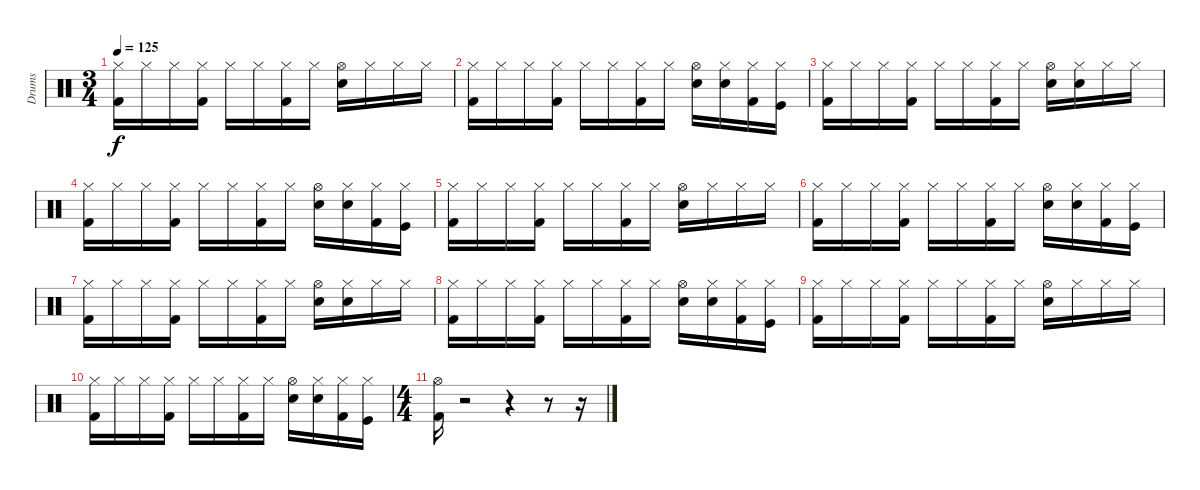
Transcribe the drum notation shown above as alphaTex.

\track ("Drums" "Drums") {instrument percussion}
\staff {score}
\articulation defaults
\ts (3 4)
\tempo 125
\clef neutral
\ks c
("Hi-Hat (closed)" "Kick (hit) 2").16{dy f} "Hi-Hat (closed)".16 "Hi-Hat (closed)".16 ("Hi-Hat (closed)" "Kick (hit) 2").16 "Hi-Hat (closed)".16 "Hi-Hat (closed)".16 ("Hi-Hat (closed)" "Kick (hit) 2").16 "Hi-Hat (closed)".16 ("Hi-Hat (open)" "Electric Snare (hit)").16 "Hi-Hat (closed)".16 "Hi-Hat (closed)".16 "Hi-Hat (closed)".16 |
("Hi-Hat (closed)" "Kick (hit) 2").16 "Hi-Hat (closed)".16 "Hi-Hat (closed)".16 ("Hi-Hat (closed)" "Kick (hit) 2").16 "Hi-Hat (closed)".16 "Hi-Hat (closed)".16 ("Hi-Hat (closed)" "Kick (hit) 2").16 "Hi-Hat (closed)".16 ("Hi-Hat (open)" "Electric Snare (hit)").16 ("Hi-Hat (closed)" "Electric Snare (hit)").16 ("Hi-Hat (closed)" "Kick (hit) 2").16 ("Hi-Hat (closed)" "Kick (hit)").16 |
("Hi-Hat (closed)" "Kick (hit) 2").16 "Hi-Hat (closed)".16 "Hi-Hat (closed)".16 ("Hi-Hat (closed)" "Kick (hit) 2").16 "Hi-Hat (closed)".16 "Hi-Hat (closed)".16 ("Hi-Hat (closed)" "Kick (hit) 2").16 "Hi-Hat (closed)".16 ("Hi-Hat (open)" "Electric Snare (hit)").16 ("Hi-Hat (closed)" "Electric Snare (hit)").16 "Hi-Hat (closed)".16 "Hi-Hat (closed)".16 |
("Hi-Hat (closed)" "Kick (hit) 2").16 "Hi-Hat (closed)".16 "Hi-Hat (closed)".16 ("Hi-Hat (closed)" "Kick (hit) 2").16 "Hi-Hat (closed)".16 "Hi-Hat (closed)".16 ("Hi-Hat (closed)" "Kick (hit) 2").16 "Hi-Hat (closed)".16 ("Hi-Hat (open)" "Electric Snare (hit)").16 ("Hi-Hat (closed)" "Electric Snare (hit)").16 ("Hi-Hat (closed)" "Kick (hit) 2").16 ("Hi-Hat (closed)" "Kick (hit)").16 |
("Hi-Hat (closed)" "Kick (hit) 2").16 "Hi-Hat (closed)".16 "Hi-Hat (closed)".16 ("Hi-Hat (closed)" "Kick (hit) 2").16 "Hi-Hat (closed)".16 "Hi-Hat (closed)".16 ("Hi-Hat (closed)" "Kick (hit) 2").16 "Hi-Hat (closed)".16 ("Hi-Hat (open)" "Electric Snare (hit)").16 "Hi-Hat (closed)".16 "Hi-Hat (closed)".16 "Hi-Hat (closed)".16 |
("Hi-Hat (closed)" "Kick (hit) 2").16 "Hi-Hat (closed)".16 "Hi-Hat (closed)".16 ("Hi-Hat (closed)" "Kick (hit) 2").16 "Hi-Hat (closed)".16 "Hi-Hat (closed)".16 ("Hi-Hat (closed)" "Kick (hit) 2").16 "Hi-Hat (closed)".16 ("Hi-Hat (open)" "Electric Snare (hit)").16 ("Hi-Hat (closed)" "Electric Snare (hit)").16 ("Hi-Hat (closed)" "Kick (hit) 2").16 ("Hi-Hat (closed)" "Kick (hit)").16 |
("Hi-Hat (closed)" "Kick (hit) 2").16 "Hi-Hat (closed)".16 "Hi-Hat (closed)".16 ("Hi-Hat (closed)" "Kick (hit) 2").16 "Hi-Hat (closed)".16 "Hi-Hat (closed)".16 ("Hi-Hat (closed)" "Kick (hit) 2").16 "Hi-Hat (closed)".16 ("Hi-Hat (open)" "Electric Snare (hit)").16 ("Hi-Hat (closed)" "Electric Snare (hit)").16 "Hi-Hat (closed)".16 "Hi-Hat (closed)".16 |
("Hi-Hat (closed)" "Kick (hit) 2").16 "Hi-Hat (closed)".16 "Hi-Hat (closed)".16 ("Hi-Hat (closed)" "Kick (hit) 2").16 "Hi-Hat (closed)".16 "Hi-Hat (closed)".16 ("Hi-Hat (closed)" "Kick (hit) 2").16 "Hi-Hat (closed)".16 ("Hi-Hat (open)" "Electric Snare (hit)").16 ("Hi-Hat (closed)" "Electric Snare (hit)").16 ("Hi-Hat (closed)" "Kick (hit) 2").16 ("Hi-Hat (closed)" "Kick (hit)").16 |
("Hi-Hat (closed)" "Kick (hit) 2").16 "Hi-Hat (closed)".16 "Hi-Hat (closed)".16 ("Hi-Hat (closed)" "Kick (hit) 2").16 "Hi-Hat (closed)".16 "Hi-Hat (closed)".16 ("Hi-Hat (closed)" "Kick (hit) 2").16 "Hi-Hat (closed)".16 ("Hi-Hat (open)" "Electric Snare (hit)").16 "Hi-Hat (closed)".16 "Hi-Hat (closed)".16 "Hi-Hat (closed)".16 |
("Hi-Hat (closed)" "Kick (hit) 2").16 "Hi-Hat (closed)".16 "Hi-Hat (closed)".16 ("Hi-Hat (closed)" "Kick (hit) 2").16 "Hi-Hat (closed)".16 "Hi-Hat (closed)".16 ("Hi-Hat (closed)" "Kick (hit) 2").16 "Hi-Hat (closed)".16 ("Hi-Hat (open)" "Electric Snare (hit)").16 ("Hi-Hat (closed)" "Electric Snare (hit)").16 ("Hi-Hat (closed)" "Kick (hit) 2").16 ("Hi-Hat (closed)" "Kick (hit)").16 |
\ts (4 4)
("Hi-Hat (open)" "Kick (hit) 2").16 r.2 r.4 r.8 r.16
